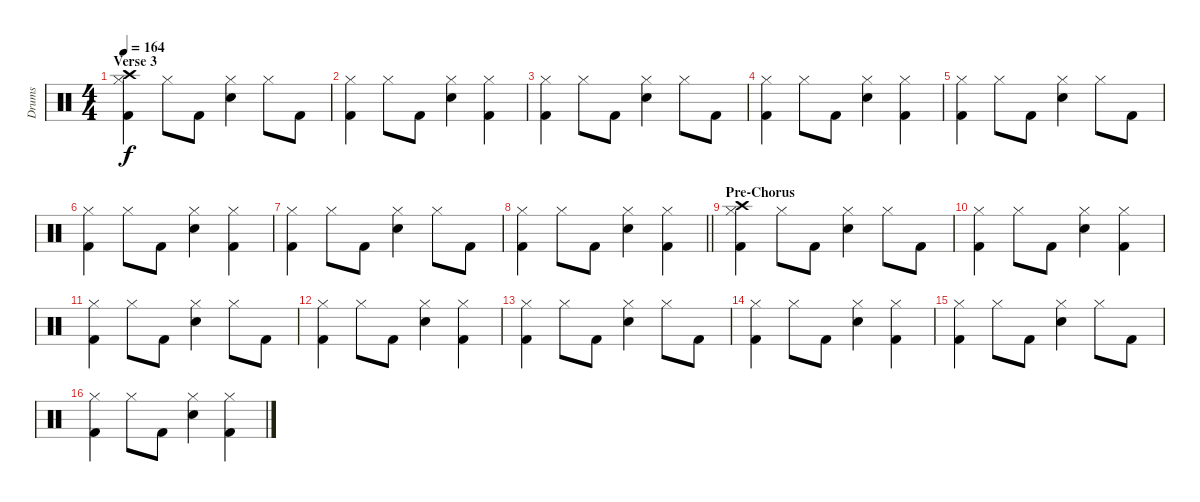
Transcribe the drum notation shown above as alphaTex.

\track ("Drums" "Drums") {instrument percussion}
\staff {score}
\articulation defaults
\ts (4 4)
\section ("" "Verse 3")
\tempo 164
\clef neutral
\ks c
("Crash high (hit)" "Hi-Hat (closed)" "Kick (hit) 2").4{dy f} "Hi-Hat (closed)".8 "Kick (hit) 2".8 ("Hi-Hat (closed)" "Snare (hit) 2").4 "Hi-Hat (closed)".8 "Kick (hit) 2".8 |
("Hi-Hat (closed)" "Kick (hit) 2").4 "Hi-Hat (closed)".8 "Kick (hit) 2".8 ("Hi-Hat (closed)" "Snare (hit) 2").4 ("Hi-Hat (closed)" "Kick (hit) 2").4 |
("Hi-Hat (closed)" "Kick (hit) 2").4 "Hi-Hat (closed)".8 "Kick (hit) 2".8 ("Hi-Hat (closed)" "Snare (hit) 2").4 "Hi-Hat (closed)".8 "Kick (hit) 2".8 |
("Hi-Hat (closed)" "Kick (hit) 2").4 "Hi-Hat (closed)".8 "Kick (hit) 2".8 ("Hi-Hat (closed)" "Snare (hit) 2").4 ("Hi-Hat (closed)" "Kick (hit) 2").4 |
("Hi-Hat (closed)" "Kick (hit) 2").4 "Hi-Hat (closed)".8 "Kick (hit) 2".8 ("Hi-Hat (closed)" "Snare (hit) 2").4 "Hi-Hat (closed)".8 "Kick (hit) 2".8 |
("Hi-Hat (closed)" "Kick (hit) 2").4 "Hi-Hat (closed)".8 "Kick (hit) 2".8 ("Hi-Hat (closed)" "Snare (hit) 2").4 ("Hi-Hat (closed)" "Kick (hit) 2").4 |
("Hi-Hat (closed)" "Kick (hit) 2").4 "Hi-Hat (closed)".8 "Kick (hit) 2".8 ("Hi-Hat (closed)" "Snare (hit) 2").4 "Hi-Hat (closed)".8 "Kick (hit) 2".8 |
\barLineRight lightlight
("Hi-Hat (closed)" "Kick (hit) 2").4 "Hi-Hat (closed)".8 "Kick (hit) 2".8 ("Hi-Hat (closed)" "Snare (hit) 2").4 ("Hi-Hat (closed)" "Kick (hit) 2").4 |
\section ("" "Pre-Chorus")
("Crash high (hit)" "Hi-Hat (closed)" "Kick (hit) 2").4 "Hi-Hat (closed)".8 "Kick (hit) 2".8 ("Hi-Hat (closed)" "Snare (hit) 2").4 "Hi-Hat (closed)".8 "Kick (hit) 2".8 |
("Hi-Hat (closed)" "Kick (hit) 2").4 "Hi-Hat (closed)".8 "Kick (hit) 2".8 ("Hi-Hat (closed)" "Snare (hit) 2").4 ("Hi-Hat (closed)" "Kick (hit) 2").4 |
("Hi-Hat (closed)" "Kick (hit) 2").4 "Hi-Hat (closed)".8 "Kick (hit) 2".8 ("Hi-Hat (closed)" "Snare (hit) 2").4 "Hi-Hat (closed)".8 "Kick (hit) 2".8 |
("Hi-Hat (closed)" "Kick (hit) 2").4 "Hi-Hat (closed)".8 "Kick (hit) 2".8 ("Hi-Hat (closed)" "Snare (hit) 2").4 ("Hi-Hat (closed)" "Kick (hit) 2").4 |
("Hi-Hat (closed)" "Kick (hit) 2").4 "Hi-Hat (closed)".8 "Kick (hit) 2".8 ("Hi-Hat (closed)" "Snare (hit) 2").4 "Hi-Hat (closed)".8 "Kick (hit) 2".8 |
("Hi-Hat (closed)" "Kick (hit) 2").4 "Hi-Hat (closed)".8 "Kick (hit) 2".8 ("Hi-Hat (closed)" "Snare (hit) 2").4 ("Hi-Hat (closed)" "Kick (hit) 2").4 |
("Hi-Hat (closed)" "Kick (hit) 2").4 "Hi-Hat (closed)".8 "Kick (hit) 2".8 ("Hi-Hat (closed)" "Snare (hit) 2").4 "Hi-Hat (closed)".8 "Kick (hit) 2".8 |
("Hi-Hat (closed)" "Kick (hit) 2").4 "Hi-Hat (closed)".8 "Kick (hit) 2".8 ("Hi-Hat (closed)" "Snare (hit) 2").4 ("Hi-Hat (closed)" "Kick (hit) 2").4
